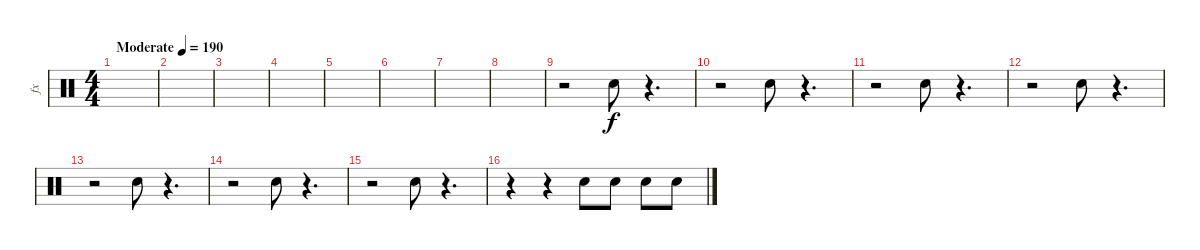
\track ("fx" "fx") {instrument percussion}
\staff {score}
\articulation defaults
\ts (4 4)
\tempo (190 "Moderate")
\clef neutral
\ks c
|
|
|
|
|
|
|
|
r.2 "Snare (hit) 2".8 r.4{d} |
r.2 "Snare (hit) 2".8 r.4{d} |
r.2 "Snare (hit) 2".8 r.4{d} |
r.2 "Snare (hit) 2".8 r.4{d} |
r.2 "Snare (hit) 2".8 r.4{d} |
r.2 "Snare (hit) 2".8 r.4{d} |
r.2 "Snare (hit) 2".8 r.4{d} |
r.4 r.4 "Snare (hit) 2".8 "Snare (hit) 2".8 "Snare (hit) 2".8 "Snare (hit) 2".8
